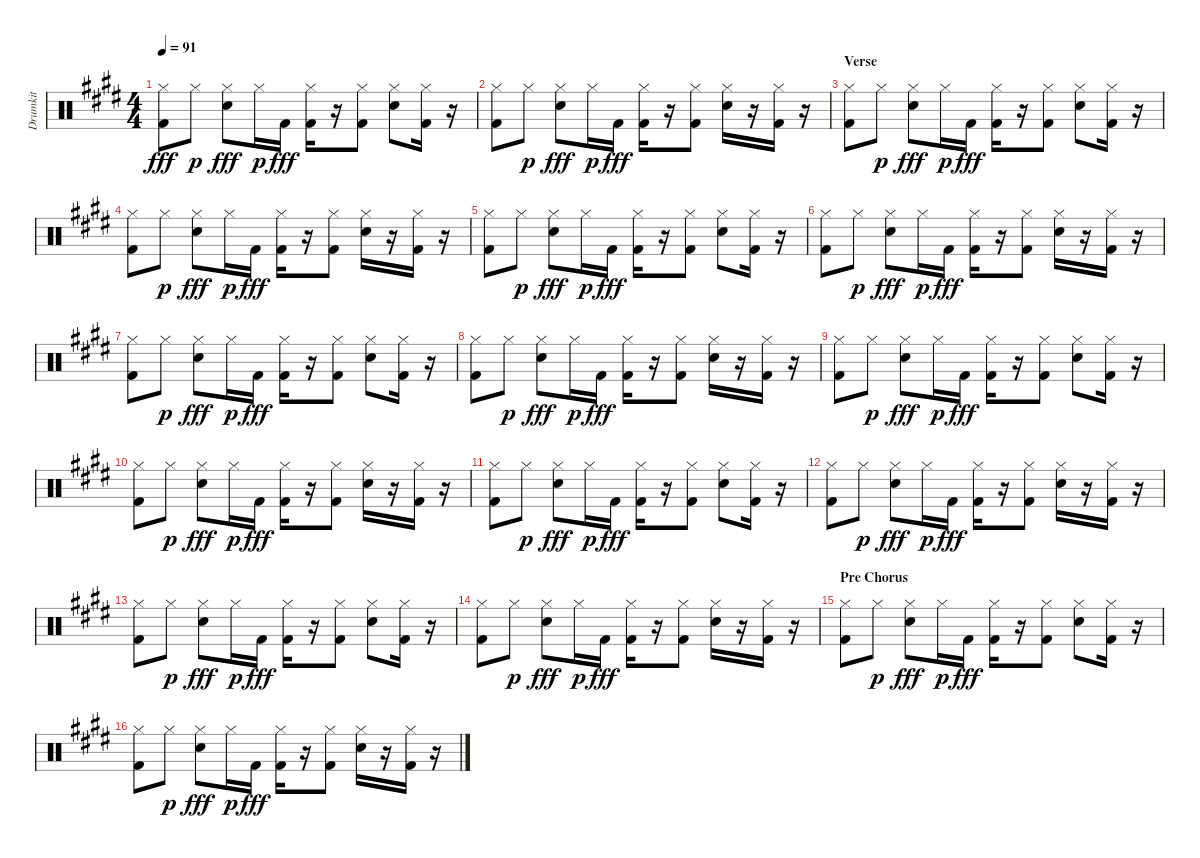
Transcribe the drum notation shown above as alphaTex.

\track ("Drumkit" "Drumkit") {instrument percussion}
\staff {score}
\articulation defaults
\ts (4 4)
\tempo 91
\clef neutral
\ks e
("Kick (hit) 2" "Hi-Hat (closed)").8{dy fff} "Hi-Hat (closed)".8{dy p} ("Snare (hit) 2" "Hi-Hat (closed)").8{dy fff} "Hi-Hat (closed)".16{dy p} "Kick (hit) 2".16{dy fff} ("Kick (hit) 2" "Hi-Hat (closed)").16 r.16 ("Kick (hit) 2" "Hi-Hat (closed)").8 ("Snare (hit) 2" "Hi-Hat (closed)").8 ("Kick (hit) 2" "Hi-Hat (closed)").16 r.16 |
("Kick (hit) 2" "Hi-Hat (closed)").8 "Hi-Hat (closed)".8{dy p} ("Snare (hit) 2" "Hi-Hat (closed)").8{dy fff} "Hi-Hat (closed)".16{dy p} "Kick (hit) 2".16{dy fff} ("Kick (hit) 2" "Hi-Hat (closed)").16 r.16 ("Kick (hit) 2" "Hi-Hat (closed)").8 ("Snare (hit) 2" "Hi-Hat (closed)").16 r.16 ("Kick (hit) 2" "Hi-Hat (closed)").16 r.16 |
\section ("" "Verse")
("Kick (hit) 2" "Hi-Hat (closed)").8 "Hi-Hat (closed)".8{dy p} ("Snare (hit) 2" "Hi-Hat (closed)").8{dy fff} "Hi-Hat (closed)".16{dy p} "Kick (hit) 2".16{dy fff} ("Kick (hit) 2" "Hi-Hat (closed)").16 r.16 ("Kick (hit) 2" "Hi-Hat (closed)").8 ("Snare (hit) 2" "Hi-Hat (closed)").8 ("Kick (hit) 2" "Hi-Hat (closed)").16 r.16 |
("Kick (hit) 2" "Hi-Hat (closed)").8 "Hi-Hat (closed)".8{dy p} ("Snare (hit) 2" "Hi-Hat (closed)").8{dy fff} "Hi-Hat (closed)".16{dy p} "Kick (hit) 2".16{dy fff} ("Kick (hit) 2" "Hi-Hat (closed)").16 r.16 ("Kick (hit) 2" "Hi-Hat (closed)").8 ("Snare (hit) 2" "Hi-Hat (closed)").16 r.16 ("Kick (hit) 2" "Hi-Hat (closed)").16 r.16 |
("Kick (hit) 2" "Hi-Hat (closed)").8 "Hi-Hat (closed)".8{dy p} ("Snare (hit) 2" "Hi-Hat (closed)").8{dy fff} "Hi-Hat (closed)".16{dy p} "Kick (hit) 2".16{dy fff} ("Kick (hit) 2" "Hi-Hat (closed)").16 r.16 ("Kick (hit) 2" "Hi-Hat (closed)").8 ("Snare (hit) 2" "Hi-Hat (closed)").8 ("Kick (hit) 2" "Hi-Hat (closed)").16 r.16 |
("Kick (hit) 2" "Hi-Hat (closed)").8 "Hi-Hat (closed)".8{dy p} ("Snare (hit) 2" "Hi-Hat (closed)").8{dy fff} "Hi-Hat (closed)".16{dy p} "Kick (hit) 2".16{dy fff} ("Kick (hit) 2" "Hi-Hat (closed)").16 r.16 ("Kick (hit) 2" "Hi-Hat (closed)").8 ("Snare (hit) 2" "Hi-Hat (closed)").16 r.16 ("Kick (hit) 2" "Hi-Hat (closed)").16 r.16 |
("Kick (hit) 2" "Hi-Hat (closed)").8 "Hi-Hat (closed)".8{dy p} ("Snare (hit) 2" "Hi-Hat (closed)").8{dy fff} "Hi-Hat (closed)".16{dy p} "Kick (hit) 2".16{dy fff} ("Kick (hit) 2" "Hi-Hat (closed)").16 r.16 ("Kick (hit) 2" "Hi-Hat (closed)").8 ("Snare (hit) 2" "Hi-Hat (closed)").8 ("Kick (hit) 2" "Hi-Hat (closed)").16 r.16 |
("Kick (hit) 2" "Hi-Hat (closed)").8 "Hi-Hat (closed)".8{dy p} ("Snare (hit) 2" "Hi-Hat (closed)").8{dy fff} "Hi-Hat (closed)".16{dy p} "Kick (hit) 2".16{dy fff} ("Kick (hit) 2" "Hi-Hat (closed)").16 r.16 ("Kick (hit) 2" "Hi-Hat (closed)").8 ("Snare (hit) 2" "Hi-Hat (closed)").16 r.16 ("Kick (hit) 2" "Hi-Hat (closed)").16 r.16 |
("Kick (hit) 2" "Hi-Hat (closed)").8 "Hi-Hat (closed)".8{dy p} ("Snare (hit) 2" "Hi-Hat (closed)").8{dy fff} "Hi-Hat (closed)".16{dy p} "Kick (hit) 2".16{dy fff} ("Kick (hit) 2" "Hi-Hat (closed)").16 r.16 ("Kick (hit) 2" "Hi-Hat (closed)").8 ("Snare (hit) 2" "Hi-Hat (closed)").8 ("Kick (hit) 2" "Hi-Hat (closed)").16 r.16 |
("Kick (hit) 2" "Hi-Hat (closed)").8 "Hi-Hat (closed)".8{dy p} ("Snare (hit) 2" "Hi-Hat (closed)").8{dy fff} "Hi-Hat (closed)".16{dy p} "Kick (hit) 2".16{dy fff} ("Kick (hit) 2" "Hi-Hat (closed)").16 r.16 ("Kick (hit) 2" "Hi-Hat (closed)").8 ("Snare (hit) 2" "Hi-Hat (closed)").16 r.16 ("Kick (hit) 2" "Hi-Hat (closed)").16 r.16 |
("Kick (hit) 2" "Hi-Hat (closed)").8 "Hi-Hat (closed)".8{dy p} ("Snare (hit) 2" "Hi-Hat (closed)").8{dy fff} "Hi-Hat (closed)".16{dy p} "Kick (hit) 2".16{dy fff} ("Kick (hit) 2" "Hi-Hat (closed)").16 r.16 ("Kick (hit) 2" "Hi-Hat (closed)").8 ("Snare (hit) 2" "Hi-Hat (closed)").8 ("Kick (hit) 2" "Hi-Hat (closed)").16 r.16 |
("Kick (hit) 2" "Hi-Hat (closed)").8 "Hi-Hat (closed)".8{dy p} ("Snare (hit) 2" "Hi-Hat (closed)").8{dy fff} "Hi-Hat (closed)".16{dy p} "Kick (hit) 2".16{dy fff} ("Kick (hit) 2" "Hi-Hat (closed)").16 r.16 ("Kick (hit) 2" "Hi-Hat (closed)").8 ("Snare (hit) 2" "Hi-Hat (closed)").16 r.16 ("Kick (hit) 2" "Hi-Hat (closed)").16 r.16 |
("Kick (hit) 2" "Hi-Hat (closed)").8 "Hi-Hat (closed)".8{dy p} ("Snare (hit) 2" "Hi-Hat (closed)").8{dy fff} "Hi-Hat (closed)".16{dy p} "Kick (hit) 2".16{dy fff} ("Kick (hit) 2" "Hi-Hat (closed)").16 r.16 ("Kick (hit) 2" "Hi-Hat (closed)").8 ("Snare (hit) 2" "Hi-Hat (closed)").8 ("Kick (hit) 2" "Hi-Hat (closed)").16 r.16 |
("Kick (hit) 2" "Hi-Hat (closed)").8 "Hi-Hat (closed)".8{dy p} ("Snare (hit) 2" "Hi-Hat (closed)").8{dy fff} "Hi-Hat (closed)".16{dy p} "Kick (hit) 2".16{dy fff} ("Kick (hit) 2" "Hi-Hat (closed)").16 r.16 ("Kick (hit) 2" "Hi-Hat (closed)").8 ("Snare (hit) 2" "Hi-Hat (closed)").16 r.16 ("Kick (hit) 2" "Hi-Hat (closed)").16 r.16 |
\section ("" "Pre Chorus")
("Kick (hit) 2" "Hi-Hat (closed)").8 "Hi-Hat (closed)".8{dy p} ("Snare (hit) 2" "Hi-Hat (closed)").8{dy fff} "Hi-Hat (closed)".16{dy p} "Kick (hit) 2".16{dy fff} ("Kick (hit) 2" "Hi-Hat (closed)").16 r.16 ("Kick (hit) 2" "Hi-Hat (closed)").8 ("Snare (hit) 2" "Hi-Hat (closed)").8 ("Kick (hit) 2" "Hi-Hat (closed)").16 r.16 |
("Kick (hit) 2" "Hi-Hat (closed)").8 "Hi-Hat (closed)".8{dy p} ("Snare (hit) 2" "Hi-Hat (closed)").8{dy fff} "Hi-Hat (closed)".16{dy p} "Kick (hit) 2".16{dy fff} ("Kick (hit) 2" "Hi-Hat (closed)").16 r.16 ("Kick (hit) 2" "Hi-Hat (closed)").8 ("Snare (hit) 2" "Hi-Hat (closed)").16 r.16 ("Kick (hit) 2" "Hi-Hat (closed)").16 r.16
